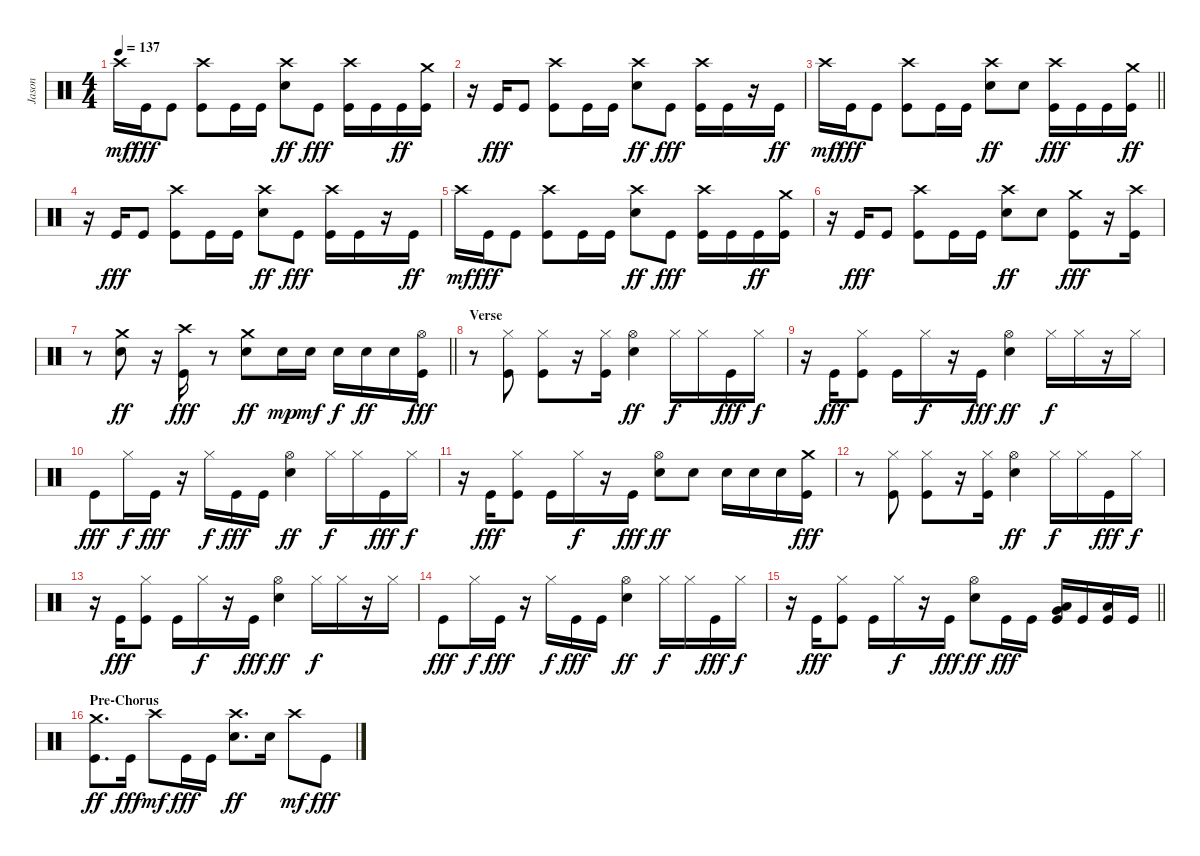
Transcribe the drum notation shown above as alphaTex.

\track ("Jason" "Jason") {instrument percussion}
\staff {score}
\articulation defaults
\ts (4 4)
\tempo 137
\clef neutral
\ks c "Crash high (hit)".16{dy mf} "Kick (hit)".16{dy fff} "Kick (hit)".8
("Crash high (hit)" "Kick (hit)").8 "Kick (hit)".16 "Kick (hit)".16 ("Crash high (hit)" "Electric Snare (hit)").8{dy ff} "Kick (hit)".8{dy fff} ("Crash high (hit)" "Kick (hit)").16 "Kick (hit)".16 "Kick (hit)".16{dy ff} ("Crash medium (hit)" "Kick (hit)").16 |
r.16 "Kick (hit)".16{dy fff} "Kick (hit)".8 ("Crash high (hit)" "Kick (hit)").8 "Kick (hit)".16 "Kick (hit)".16 ("Crash high (hit)" "Electric Snare (hit)").8{dy ff} "Kick (hit)".8{dy fff} ("Crash high (hit)" "Kick (hit)").16 "Kick (hit)".16 r.16 "Kick (hit)".16{dy ff} |
\barLineRight lightlight "Crash high (hit)".16{dy mf} "Kick (hit)".16{dy fff} "Kick (hit)".8
("Crash high (hit)" "Kick (hit)").8 "Kick (hit)".16 "Kick (hit)".16 ("Crash high (hit)" "Electric Snare (hit)").8{dy ff} "Electric Snare (hit)".8 ("Crash high (hit)" "Kick (hit)").16{dy fff} "Kick (hit)".16 "Kick (hit)".16 ("Crash medium (hit)" "Kick (hit)").16{dy ff} |
r.16 "Kick (hit)".16{dy fff} "Kick (hit)".8 ("Crash high (hit)" "Kick (hit)").8 "Kick (hit)".16 "Kick (hit)".16 ("Crash high (hit)" "Electric Snare (hit)").8{dy ff} "Kick (hit)".8{dy fff} ("Crash high (hit)" "Kick (hit)").16 "Kick (hit)".16 r.16 "Kick (hit)".16{dy ff} |
"Crash high (hit)".16{dy mf} "Kick (hit)".16{dy fff} "Kick (hit)".8 ("Crash high (hit)" "Kick (hit)").8 "Kick (hit)".16 "Kick (hit)".16 ("Crash high (hit)" "Electric Snare (hit)").8{dy ff} "Kick (hit)".8{dy fff} ("Crash high (hit)" "Kick (hit)").16 "Kick (hit)".16 "Kick (hit)".16{dy ff} ("Crash medium (hit)" "Kick (hit)").16 |
r.16 "Kick (hit)".16{dy fff} "Kick (hit)".8 ("Crash high (hit)" "Kick (hit)").8 "Kick (hit)".16 "Kick (hit)".16 ("Crash high (hit)" "Electric Snare (hit)").8{dy ff} "Electric Snare (hit)".8 ("Crash medium (hit)" "Kick (hit)").8{dy fff} r.16 ("Crash high (hit)" "Kick (hit)").16 |
\barLineRight lightlight
r.8 ("Crash medium (hit)" "Electric Snare (hit)").8{dy ff} r.16 ("Crash high (hit)" "Kick (hit)").16{dy fff} r.8 ("Crash medium (hit)" "Electric Snare (hit)").8{dy ff} "Electric Snare (hit)".16{dy mp} "Electric Snare (hit)".16{dy mf} "Electric Snare (hit)".16{dy f} "Electric Snare (hit)".16{dy ff} "Electric Snare (hit)".16 ("Hi-Hat (open)" "Kick (hit)").16{dy fff} |
\section ("" "Verse")
r.8 ("Hi-Hat (closed)" "Kick (hit)").8 ("Hi-Hat (closed)" "Kick (hit)").8 r.16 ("Hi-Hat (closed)" "Kick (hit)").16 ("Hi-Hat (open)" "Electric Snare (hit)").4{dy ff} "Hi-Hat (closed)".16{dy f} "Hi-Hat (closed)".16 "Kick (hit)".16{dy fff} "Hi-Hat (closed)".16{dy f} |
r.16 "Kick (hit)".16{dy fff} ("Hi-Hat (closed)" "Kick (hit)").8 "Kick (hit)".16 "Hi-Hat (closed)".16{dy f} r.16 "Kick (hit)".16{dy fff} ("Hi-Hat (open)" "Electric Snare (hit)").4{dy ff} "Hi-Hat (closed)".16{dy f} "Hi-Hat (closed)".16 r.16 "Hi-Hat (closed)".16 |
"Kick (hit)".8{dy fff} "Hi-Hat (closed)".16{dy f} "Kick (hit)".16{dy fff} r.16 "Hi-Hat (closed)".16{dy f} "Kick (hit)".16{dy fff} "Kick (hit)".16 ("Hi-Hat (open)" "Electric Snare (hit)").4{dy ff} "Hi-Hat (closed)".16{dy f} "Hi-Hat (closed)".16 "Kick (hit)".16{dy fff} "Hi-Hat (closed)".16{dy f} |
r.16 "Kick (hit)".16{dy fff} ("Hi-Hat (closed)" "Kick (hit)").8 "Kick (hit)".16 "Hi-Hat (closed)".16{dy f} r.16 "Kick (hit)".16{dy fff} ("Hi-Hat (open)" "Electric Snare (hit)").8{dy ff} "Electric Snare (hit)".8 "Electric Snare (hit)".16 "Electric Snare (hit)".16 "Electric Snare (hit)".16 ("Crash medium (hit)" "Kick (hit)").16{dy fff} |
r.8 ("Hi-Hat (closed)" "Kick (hit)").8 ("Hi-Hat (closed)" "Kick (hit)").8 r.16 ("Hi-Hat (closed)" "Kick (hit)").16 ("Hi-Hat (open)" "Electric Snare (hit)").4{dy ff} "Hi-Hat (closed)".16{dy f} "Hi-Hat (closed)".16 "Kick (hit)".16{dy fff} "Hi-Hat (closed)".16{dy f} |
r.16 "Kick (hit)".16{dy fff} ("Hi-Hat (closed)" "Kick (hit)").8 "Kick (hit)".16 "Hi-Hat (closed)".16{dy f} r.16 "Kick (hit)".16{dy fff} ("Hi-Hat (open)" "Electric Snare (hit)").4{dy ff} "Hi-Hat (closed)".16{dy f} "Hi-Hat (closed)".16 r.16 "Hi-Hat (closed)".16 |
"Kick (hit)".8{dy fff} "Hi-Hat (closed)".16{dy f} "Kick (hit)".16{dy fff} r.16 "Hi-Hat (closed)".16{dy f} "Kick (hit)".16{dy fff} "Kick (hit)".16 ("Hi-Hat (open)" "Electric Snare (hit)").4{dy ff} "Hi-Hat (closed)".16{dy f} "Hi-Hat (closed)".16 "Kick (hit)".16{dy fff} "Hi-Hat (closed)".16{dy f} |
\barLineRight lightlight
r.16 "Kick (hit)".16{dy fff} ("Hi-Hat (closed)" "Kick (hit)").8 "Kick (hit)".16 "Hi-Hat (closed)".16{dy f} r.16 "Kick (hit)".16{dy fff} ("Hi-Hat (open)" "Electric Snare (hit)").8{dy ff} "Kick (hit)".16{dy fff} "Kick (hit)".16 ("Very Low Tom (hit)" "Low Floor Tom (hit)" "Kick (hit)").16 "Kick (hit)".16 ("Low Floor Tom (hit)" "Kick (hit)").16 "Kick (hit)".16 |
\section ("" "Pre-Chorus")
("Crash medium (hit)" "Kick (hit)").8{d dy ff} "Kick (hit)".16{dy fff} "Crash high (hit)".8{dy mf} "Kick (hit)".16{dy fff} "Kick (hit)".16 ("Crash high (hit)" "Electric Snare (hit)").8{d dy ff} "Electric Snare (hit)".16 "Crash high (hit)".8{dy mf} "Kick (hit)".8{dy fff}
